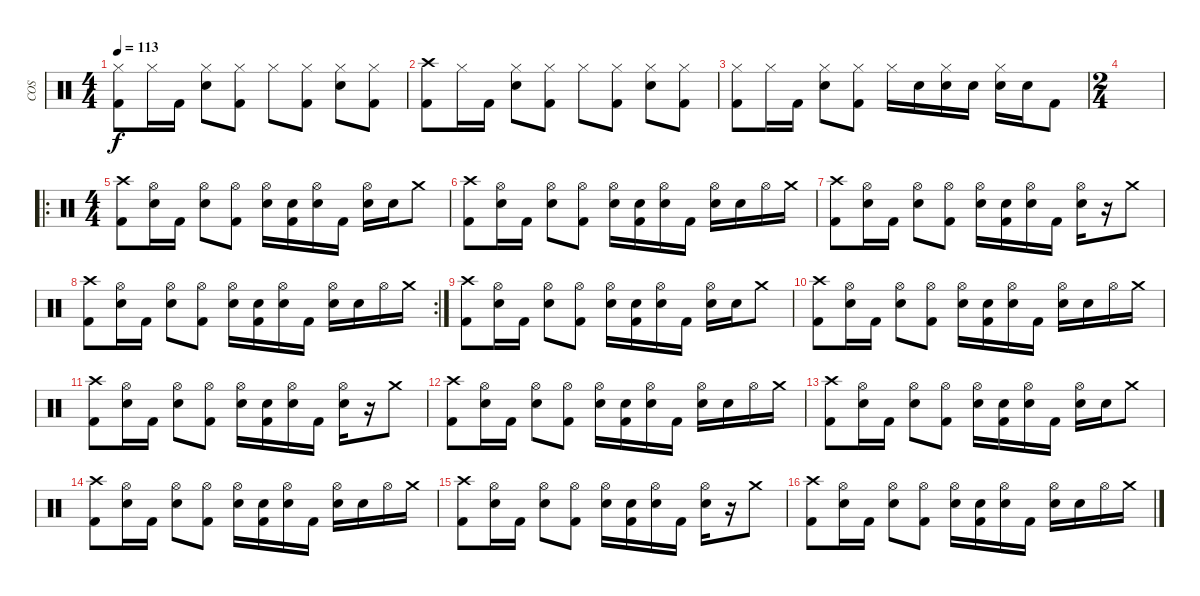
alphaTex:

\track ("COS" "COS") {instrument percussion}
\staff {score}
\articulation defaults
\ts (4 4)
\tempo 113
\clef neutral
\ks c
("Hi-Hat (closed)" "Kick (hit) 2").8{dy f} "Hi-Hat (closed)".16 "Kick (hit) 2".16 ("Hi-Hat (closed)" "Electric Snare (hit)").8 ("Hi-Hat (closed)" "Kick (hit) 2").8 "Hi-Hat (closed)".8 ("Hi-Hat (closed)" "Kick (hit) 2").8 ("Hi-Hat (closed)" "Electric Snare (hit)").8 ("Hi-Hat (closed)" "Kick (hit) 2").8 |
("Crash high (hit)" "Kick (hit) 2").8 "Hi-Hat (closed)".16 "Kick (hit) 2".16 ("Hi-Hat (closed)" "Electric Snare (hit)").8 ("Hi-Hat (closed)" "Kick (hit) 2").8 "Hi-Hat (closed)".8 ("Hi-Hat (closed)" "Kick (hit) 2").8 ("Hi-Hat (closed)" "Electric Snare (hit)").8 ("Hi-Hat (closed)" "Kick (hit) 2").8 |
("Hi-Hat (closed)" "Kick (hit) 2").8 "Hi-Hat (closed)".16 "Kick (hit) 2".16 ("Hi-Hat (closed)" "Electric Snare (hit)").8 ("Hi-Hat (closed)" "Kick (hit) 2").8 "Hi-Hat (closed)".16 "Electric Snare (hit)".16 ("Hi-Hat (closed)" "Electric Snare (hit)").16 "Electric Snare (hit)".16 ("Hi-Hat (closed)" "Electric Snare (hit)").16 "Electric Snare (hit)".16 "Kick (hit) 2".8 |
\ts (2 4)
|
\ro
\ts (4 4)
("Crash high (hit)" "Kick (hit) 2").8 ("Hi-Hat (open)" "Snare (hit)").16 "Kick (hit) 2".16 ("Hi-Hat (open)" "Electric Snare (hit)").8 ("Hi-Hat (open)" "Kick (hit) 2").8 ("Hi-Hat (open)" "Snare (hit)").16 ("Snare (hit)" "Kick (hit) 2").16 ("Hi-Hat (open)" "Electric Snare (hit)").16 "Kick (hit) 2".16 ("Hi-Hat (open)" "Electric Snare (hit)").16 "Electric Snare (hit)".16 "Crash medium (hit)".8 |
("Crash high (hit)" "Kick (hit) 2").8 ("Hi-Hat (open)" "Snare (hit)").16 "Kick (hit) 2".16 ("Hi-Hat (open)" "Electric Snare (hit)").8 ("Hi-Hat (open)" "Kick (hit) 2").8 ("Hi-Hat (open)" "Snare (hit)").16 ("Snare (hit)" "Kick (hit) 2").16 ("Hi-Hat (open)" "Electric Snare (hit)").16 "Kick (hit) 2".16 ("Hi-Hat (open)" "Electric Snare (hit)").16 "Electric Snare (hit)".16 "Hi-Hat (open)".16 "Crash medium (hit)".16 |
("Crash high (hit)" "Kick (hit) 2").8 ("Hi-Hat (open)" "Snare (hit)").16 "Kick (hit) 2".16 ("Hi-Hat (open)" "Electric Snare (hit)").8 ("Hi-Hat (open)" "Kick (hit) 2").8 ("Hi-Hat (open)" "Snare (hit)").16 ("Snare (hit)" "Kick (hit) 2").16 ("Hi-Hat (open)" "Electric Snare (hit)").16 "Kick (hit) 2".16 ("Hi-Hat (open)" "Electric Snare (hit)").16 r.16 "Crash medium (hit)".8 |
\rc 2
("Crash high (hit)" "Kick (hit) 2").8 ("Hi-Hat (open)" "Snare (hit)").16 "Kick (hit) 2".16 ("Hi-Hat (open)" "Electric Snare (hit)").8 ("Hi-Hat (open)" "Kick (hit) 2").8 ("Hi-Hat (open)" "Snare (hit)").16 ("Snare (hit)" "Kick (hit) 2").16 ("Hi-Hat (open)" "Electric Snare (hit)").16 "Kick (hit) 2".16 ("Hi-Hat (open)" "Electric Snare (hit)").16 "Electric Snare (hit)".16 "Hi-Hat (open)".16 "Crash medium (hit)".16 |
("Crash high (hit)" "Kick (hit) 2").8 ("Hi-Hat (open)" "Snare (hit)").16 "Kick (hit) 2".16 ("Hi-Hat (open)" "Electric Snare (hit)").8 ("Hi-Hat (open)" "Kick (hit) 2").8 ("Hi-Hat (open)" "Snare (hit)").16 ("Snare (hit)" "Kick (hit) 2").16 ("Hi-Hat (open)" "Electric Snare (hit)").16 "Kick (hit) 2".16 ("Hi-Hat (open)" "Electric Snare (hit)").16 "Electric Snare (hit)".16 "Crash medium (hit)".8 |
("Crash high (hit)" "Kick (hit) 2").8 ("Hi-Hat (open)" "Snare (hit)").16 "Kick (hit) 2".16 ("Hi-Hat (open)" "Electric Snare (hit)").8 ("Hi-Hat (open)" "Kick (hit) 2").8 ("Hi-Hat (open)" "Snare (hit)").16 ("Snare (hit)" "Kick (hit) 2").16 ("Hi-Hat (open)" "Electric Snare (hit)").16 "Kick (hit) 2".16 ("Hi-Hat (open)" "Electric Snare (hit)").16 "Electric Snare (hit)".16 "Hi-Hat (open)".16 "Crash medium (hit)".16 |
("Crash high (hit)" "Kick (hit) 2").8 ("Hi-Hat (open)" "Snare (hit)").16 "Kick (hit) 2".16 ("Hi-Hat (open)" "Electric Snare (hit)").8 ("Hi-Hat (open)" "Kick (hit) 2").8 ("Hi-Hat (open)" "Snare (hit)").16 ("Snare (hit)" "Kick (hit) 2").16 ("Hi-Hat (open)" "Electric Snare (hit)").16 "Kick (hit) 2".16 ("Hi-Hat (open)" "Electric Snare (hit)").16 r.16 "Crash medium (hit)".8 |
("Crash high (hit)" "Kick (hit) 2").8 ("Hi-Hat (open)" "Snare (hit)").16 "Kick (hit) 2".16 ("Hi-Hat (open)" "Electric Snare (hit)").8 ("Hi-Hat (open)" "Kick (hit) 2").8 ("Hi-Hat (open)" "Snare (hit)").16 ("Snare (hit)" "Kick (hit) 2").16 ("Hi-Hat (open)" "Electric Snare (hit)").16 "Kick (hit) 2".16 ("Hi-Hat (open)" "Electric Snare (hit)").16 "Electric Snare (hit)".16 "Hi-Hat (open)".16 "Crash medium (hit)".16 |
("Crash high (hit)" "Kick (hit) 2").8 ("Hi-Hat (open)" "Snare (hit)").16 "Kick (hit) 2".16 ("Hi-Hat (open)" "Electric Snare (hit)").8 ("Hi-Hat (open)" "Kick (hit) 2").8 ("Hi-Hat (open)" "Snare (hit)").16 ("Snare (hit)" "Kick (hit) 2").16 ("Hi-Hat (open)" "Electric Snare (hit)").16 "Kick (hit) 2".16 ("Hi-Hat (open)" "Electric Snare (hit)").16 "Electric Snare (hit)".16 "Crash medium (hit)".8 |
("Crash high (hit)" "Kick (hit) 2").8 ("Hi-Hat (open)" "Snare (hit)").16 "Kick (hit) 2".16 ("Hi-Hat (open)" "Electric Snare (hit)").8 ("Hi-Hat (open)" "Kick (hit) 2").8 ("Hi-Hat (open)" "Snare (hit)").16 ("Snare (hit)" "Kick (hit) 2").16 ("Hi-Hat (open)" "Electric Snare (hit)").16 "Kick (hit) 2".16 ("Hi-Hat (open)" "Electric Snare (hit)").16 "Electric Snare (hit)".16 "Hi-Hat (open)".16 "Crash medium (hit)".16 |
("Crash high (hit)" "Kick (hit) 2").8 ("Hi-Hat (open)" "Snare (hit)").16 "Kick (hit) 2".16 ("Hi-Hat (open)" "Electric Snare (hit)").8 ("Hi-Hat (open)" "Kick (hit) 2").8 ("Hi-Hat (open)" "Snare (hit)").16 ("Snare (hit)" "Kick (hit) 2").16 ("Hi-Hat (open)" "Electric Snare (hit)").16 "Kick (hit) 2".16 ("Hi-Hat (open)" "Electric Snare (hit)").16 r.16 "Crash medium (hit)".8 |
("Crash high (hit)" "Kick (hit) 2").8 ("Hi-Hat (open)" "Snare (hit)").16 "Kick (hit) 2".16 ("Hi-Hat (open)" "Electric Snare (hit)").8 ("Hi-Hat (open)" "Kick (hit) 2").8 ("Hi-Hat (open)" "Snare (hit)").16 ("Snare (hit)" "Kick (hit) 2").16 ("Hi-Hat (open)" "Electric Snare (hit)").16 "Kick (hit) 2".16 ("Hi-Hat (open)" "Electric Snare (hit)").16 "Electric Snare (hit)".16 "Hi-Hat (open)".16 "Crash medium (hit)".16
